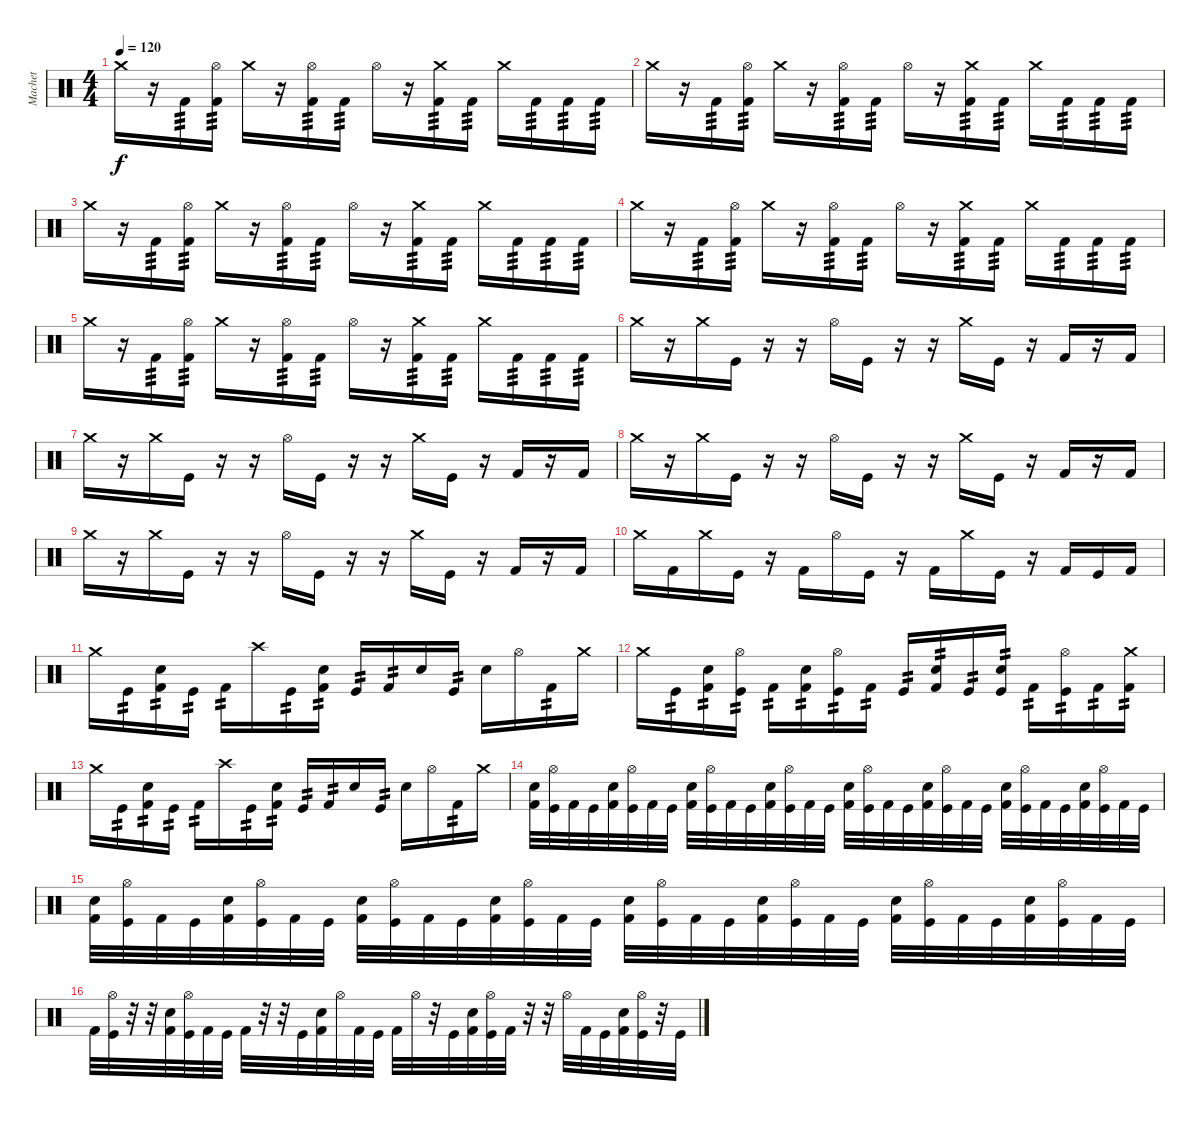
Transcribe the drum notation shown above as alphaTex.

\track ("Machet" "Machet") {instrument percussion}
\staff {score}
\articulation defaults
\ts (4 4)
\tempo 120
\clef neutral
\ks c "Crash medium (hit)".16{dy f}
r.16 "Kick (hit) 2".16{tp 3} ("Hi-Hat (open)" "Kick (hit) 2").16{tp 3} "Crash medium (hit)".16 r.16 ("Hi-Hat (open)" "Kick (hit) 2").16{tp 3} "Kick (hit) 2".16{tp 3} "Hi-Hat (open)".16 r.16 ("Crash medium (hit)" "Kick (hit) 2").16{tp 3} "Kick (hit) 2".16{tp 3} "Crash medium (hit)".16 "Kick (hit) 2".16{tp 3} "Kick (hit) 2".16{tp 3} "Kick (hit) 2".16{tp 3} |
"Crash medium (hit)".16 r.16 "Kick (hit) 2".16{tp 3} ("Hi-Hat (open)" "Kick (hit) 2").16{tp 3} "Crash medium (hit)".16 r.16 ("Hi-Hat (open)" "Kick (hit) 2").16{tp 3} "Kick (hit) 2".16{tp 3} "Hi-Hat (open)".16 r.16 ("Crash medium (hit)" "Kick (hit) 2").16{tp 3} "Kick (hit) 2".16{tp 3} "Crash medium (hit)".16 "Kick (hit) 2".16{tp 3} "Kick (hit) 2".16{tp 3} "Kick (hit) 2".16{tp 3} |
"Crash medium (hit)".16 r.16 "Kick (hit) 2".16{tp 3} ("Hi-Hat (open)" "Kick (hit) 2").16{tp 3} "Crash medium (hit)".16 r.16 ("Hi-Hat (open)" "Kick (hit) 2").16{tp 3} "Kick (hit) 2".16{tp 3} "Hi-Hat (open)".16 r.16 ("Crash medium (hit)" "Kick (hit) 2").16{tp 3} "Kick (hit) 2".16{tp 3} "Crash medium (hit)".16 "Kick (hit) 2".16{tp 3} "Kick (hit) 2".16{tp 3} "Kick (hit) 2".16{tp 3} |
"Crash medium (hit)".16 r.16 "Kick (hit) 2".16{tp 3} ("Hi-Hat (open)" "Kick (hit) 2").16{tp 3} "Crash medium (hit)".16 r.16 ("Hi-Hat (open)" "Kick (hit) 2").16{tp 3} "Kick (hit) 2".16{tp 3} "Hi-Hat (open)".16 r.16 ("Crash medium (hit)" "Kick (hit) 2").16{tp 3} "Kick (hit) 2".16{tp 3} "Crash medium (hit)".16 "Kick (hit) 2".16{tp 3} "Kick (hit) 2".16{tp 3} "Kick (hit) 2".16{tp 3} |
"Crash medium (hit)".16 r.16 "Kick (hit) 2".16{tp 3} ("Hi-Hat (open)" "Kick (hit) 2").16{tp 3} "Crash medium (hit)".16 r.16 ("Hi-Hat (open)" "Kick (hit) 2").16{tp 3} "Kick (hit) 2".16{tp 3} "Hi-Hat (open)".16 r.16 ("Crash medium (hit)" "Kick (hit) 2").16{tp 3} "Kick (hit) 2".16{tp 3} "Crash medium (hit)".16 "Kick (hit) 2".16{tp 3} "Kick (hit) 2".16{tp 3} "Kick (hit) 2".16{tp 3} |
"Crash medium (hit)".16 r.16 "Crash medium (hit)".16 "Kick (hit)".16 r.16 r.16 "Hi-Hat (open)".16 "Kick (hit)".16 r.16 r.16 "Crash medium (hit)".16 "Kick (hit)".16 r.16 "Kick (hit) 2".16 r.16 "Kick (hit) 2".16 |
"Crash medium (hit)".16 r.16 "Crash medium (hit)".16 "Kick (hit)".16 r.16 r.16 "Hi-Hat (open)".16 "Kick (hit)".16 r.16 r.16 "Crash medium (hit)".16 "Kick (hit)".16 r.16 "Kick (hit) 2".16 r.16 "Kick (hit) 2".16 |
"Crash medium (hit)".16 r.16 "Crash medium (hit)".16 "Kick (hit)".16 r.16 r.16 "Hi-Hat (open)".16 "Kick (hit)".16 r.16 r.16 "Crash medium (hit)".16 "Kick (hit)".16 r.16 "Kick (hit) 2".16 r.16 "Kick (hit) 2".16 |
"Crash medium (hit)".16 r.16 "Crash medium (hit)".16 "Kick (hit)".16 r.16 r.16 "Hi-Hat (open)".16 "Kick (hit)".16 r.16 r.16 "Crash medium (hit)".16 "Kick (hit)".16 r.16 "Kick (hit) 2".16 r.16 "Kick (hit) 2".16 |
"Crash medium (hit)".16 "Kick (hit) 2".16 "Crash medium (hit)".16 "Kick (hit)".16 r.16 "Kick (hit) 2".16 "Hi-Hat (open)".16 "Kick (hit)".16 r.16 "Kick (hit) 2".16 "Crash medium (hit)".16 "Kick (hit)".16 r.16 "Kick (hit) 2".16 "Kick (hit)".16 "Kick (hit) 2".16 |
"Crash medium (hit)".16 "Kick (hit)".16{tp 2} ("Electric Snare (hit)" "Kick (hit) 2").16{tp 2} "Kick (hit)".16{tp 2} "Kick (hit) 2".16{tp 2} "Crash high (hit)".16 "Kick (hit)".16{tp 2} ("Electric Snare (hit)" "Kick (hit) 2").16{tp 2} "Kick (hit)".16{tp 2} "Kick (hit) 2".16{tp 2} "Electric Snare (hit)".16 "Kick (hit)".16{tp 2} "Electric Snare (hit)".16 "Hi-Hat (open)".16 "Kick (hit) 2".16{tp 2} "Crash medium (hit)".16 |
"Crash medium (hit)".16 "Kick (hit)".16{tp 2} ("Electric Snare (hit)" "Kick (hit) 2").16{tp 2} ("Hi-Hat (open)" "Kick (hit)").16{tp 2} "Kick (hit) 2".16{tp 2} ("Electric Snare (hit)" "Kick (hit) 2").16{tp 2} ("Hi-Hat (open)" "Kick (hit)").16{tp 2} "Kick (hit) 2".16{tp 2} "Kick (hit)".16{tp 2} ("Electric Snare (hit)" "Kick (hit) 2").16{tp 2} "Kick (hit)".16{tp 2} ("Electric Snare (hit)" "Kick (hit)").16{tp 2} "Kick (hit) 2".16{tp 2} ("Hi-Hat (open)" "Kick (hit)").16{tp 2} "Kick (hit) 2".16{tp 2} ("Crash medium (hit)" "Kick (hit) 2").16{tp 2} |
"Crash medium (hit)".16 "Kick (hit)".16{tp 2} ("Electric Snare (hit)" "Kick (hit) 2").16{tp 2} "Kick (hit)".16{tp 2} "Kick (hit) 2".16{tp 2} "Crash high (hit)".16 "Kick (hit)".16{tp 2} ("Electric Snare (hit)" "Kick (hit) 2").16{tp 2} "Kick (hit)".16{tp 2} "Kick (hit) 2".16{tp 2} "Electric Snare (hit)".16 "Kick (hit)".16{tp 2} "Electric Snare (hit)".16 "Hi-Hat (open)".16 "Kick (hit) 2".16{tp 2} "Crash medium (hit)".16 |
("Electric Snare (hit)" "Kick (hit) 2").32 ("Hi-Hat (open)" "Kick (hit)").32 "Kick (hit) 2".32 "Kick (hit)".32 ("Electric Snare (hit)" "Kick (hit) 2").32 ("Hi-Hat (open)" "Kick (hit)").32 "Kick (hit) 2".32 "Kick (hit)".32 ("Electric Snare (hit)" "Kick (hit) 2").32 ("Hi-Hat (open)" "Kick (hit)").32 "Kick (hit) 2".32 "Kick (hit)".32 ("Electric Snare (hit)" "Kick (hit) 2").32 ("Hi-Hat (open)" "Kick (hit)").32 "Kick (hit) 2".32 "Kick (hit)".32 ("Electric Snare (hit)" "Kick (hit) 2").32 ("Hi-Hat (open)" "Kick (hit)").32 "Kick (hit) 2".32 "Kick (hit)".32 ("Electric Snare (hit)" "Kick (hit) 2").32 ("Hi-Hat (open)" "Kick (hit)").32 "Kick (hit) 2".32 "Kick (hit)".32 ("Electric Snare (hit)" "Kick (hit) 2").32 ("Hi-Hat (open)" "Kick (hit)").32 "Kick (hit) 2".32 "Kick (hit)".32 ("Electric Snare (hit)" "Kick (hit) 2").32 ("Hi-Hat (open)" "Kick (hit)").32 "Kick (hit) 2".32 "Kick (hit)".32 |
("Electric Snare (hit)" "Kick (hit) 2").32 ("Hi-Hat (open)" "Kick (hit)").32 "Kick (hit) 2".32 "Kick (hit)".32 ("Electric Snare (hit)" "Kick (hit) 2").32 ("Hi-Hat (open)" "Kick (hit)").32 "Kick (hit) 2".32 "Kick (hit)".32 ("Electric Snare (hit)" "Kick (hit) 2").32 ("Hi-Hat (open)" "Kick (hit)").32 "Kick (hit) 2".32 "Kick (hit)".32 ("Electric Snare (hit)" "Kick (hit) 2").32 ("Hi-Hat (open)" "Kick (hit)").32 "Kick (hit) 2".32 "Kick (hit)".32 ("Electric Snare (hit)" "Kick (hit) 2").32 ("Hi-Hat (open)" "Kick (hit)").32 "Kick (hit) 2".32 "Kick (hit)".32 ("Electric Snare (hit)" "Kick (hit) 2").32 ("Hi-Hat (open)" "Kick (hit)").32 "Kick (hit) 2".32 "Kick (hit)".32 ("Electric Snare (hit)" "Kick (hit) 2").32 ("Hi-Hat (open)" "Kick (hit)").32 "Kick (hit) 2".32 "Kick (hit)".32 ("Electric Snare (hit)" "Kick (hit) 2").32 ("Hi-Hat (open)" "Kick (hit)").32 "Kick (hit) 2".32 "Kick (hit)".32 |
"Kick (hit) 2".32 ("Hi-Hat (open)" "Kick (hit)").32 r.32 r.32 ("Electric Snare (hit)" "Kick (hit) 2").32 ("Hi-Hat (open)" "Kick (hit)").32 "Kick (hit) 2".32 "Kick (hit)".32 "Kick (hit) 2".32 r.32 r.32 "Kick (hit)".32 ("Electric Snare (hit)" "Kick (hit) 2").32 "Hi-Hat (open)".32 "Kick (hit) 2".32 "Kick (hit)".32 "Kick (hit) 2".32 "Hi-Hat (open)".32 r.32 "Kick (hit)".32 ("Electric Snare (hit)" "Kick (hit) 2").32 ("Hi-Hat (open)" "Kick (hit)").32 "Kick (hit) 2".32 r.32 r.32 "Hi-Hat (open)".32 "Kick (hit) 2".32 "Kick (hit)".32 ("Electric Snare (hit)" "Kick (hit) 2").32 ("Hi-Hat (open)" "Kick (hit)").32 r.32 "Kick (hit)".32
